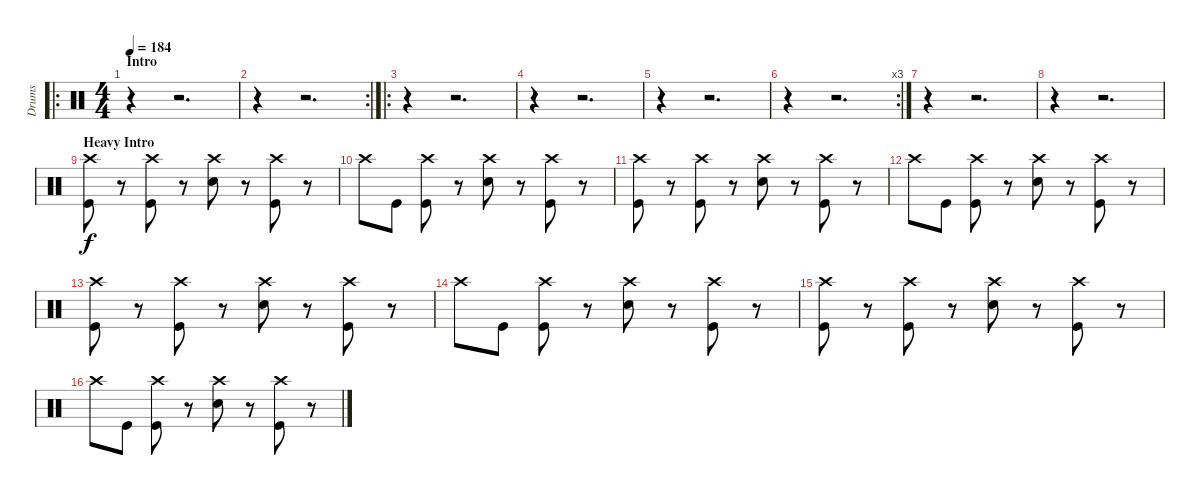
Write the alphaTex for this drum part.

\track ("Drums" "Drums") {instrument percussion}
\staff {score}
\articulation defaults
\ro
\ts (4 4)
\section ("" "Intro")
\tempo 184
\clef neutral
\ks c
r.4{dy f} r.2{d} |
\rc 2
r.4 r.2{d} |
\ro
r.4 r.2{d} |
r.4 r.2{d} |
r.4 r.2{d} |
\rc 3
r.4 r.2{d} |
r.4 r.2{d} |
r.4 r.2{d} |
\section ("" "Heavy Intro")
("Crash high (hit)" "Kick (hit)").8 r.8 ("Crash high (hit)" "Kick (hit)").8 r.8 ("Crash high (hit)" "Snare (hit) 2").8 r.8 ("Crash high (hit)" "Kick (hit)").8 r.8 |
"Crash high (hit)".8 "Kick (hit)".8 ("Crash high (hit)" "Kick (hit)").8 r.8 ("Crash high (hit)" "Snare (hit) 2").8 r.8 ("Crash high (hit)" "Kick (hit)").8 r.8 |
("Crash high (hit)" "Kick (hit)").8 r.8 ("Crash high (hit)" "Kick (hit)").8 r.8 ("Crash high (hit)" "Snare (hit) 2").8 r.8 ("Crash high (hit)" "Kick (hit)").8 r.8 |
"Crash high (hit)".8 "Kick (hit)".8 ("Crash high (hit)" "Kick (hit)").8 r.8 ("Crash high (hit)" "Snare (hit) 2").8 r.8 ("Crash high (hit)" "Kick (hit)").8 r.8 |
("Crash high (hit)" "Kick (hit)").8 r.8 ("Crash high (hit)" "Kick (hit)").8 r.8 ("Crash high (hit)" "Snare (hit) 2").8 r.8 ("Crash high (hit)" "Kick (hit)").8 r.8 |
"Crash high (hit)".8 "Kick (hit)".8 ("Crash high (hit)" "Kick (hit)").8 r.8 ("Crash high (hit)" "Snare (hit) 2").8 r.8 ("Crash high (hit)" "Kick (hit)").8 r.8 |
("Crash high (hit)" "Kick (hit)").8 r.8 ("Crash high (hit)" "Kick (hit)").8 r.8 ("Crash high (hit)" "Snare (hit) 2").8 r.8 ("Crash high (hit)" "Kick (hit)").8 r.8 |
"Crash high (hit)".8 "Kick (hit)".8 ("Crash high (hit)" "Kick (hit)").8 r.8 ("Crash high (hit)" "Snare (hit) 2").8 r.8 ("Crash high (hit)" "Kick (hit)").8 r.8
